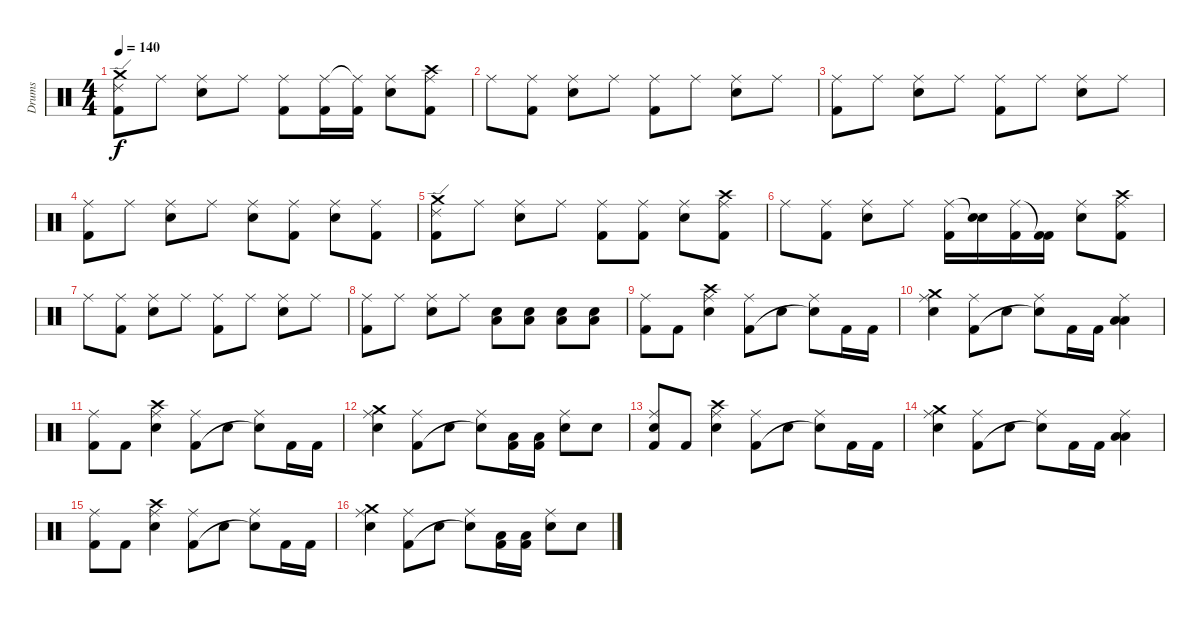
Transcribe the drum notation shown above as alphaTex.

\track ("Drums" "Drums") {instrument percussion}
\staff {score}
\articulation defaults
\ts (4 4)
\tempo 140
\clef neutral
\ks c
("Ride (edge) 2" "Kick (hit) 2" "Crash medium (hit)").8{dy f} "Ride (middle)".8 ("Ride (middle)" "Electric Snare (hit)").8 "Ride (middle)".8 ("Ride (middle)" "Kick (hit) 2").8 ("Ride (middle)" "Kick (hit) 2").16 ("Ride (middle)"{t} "Kick (hit) 2").16 ("Ride (middle)" "Electric Snare (hit)").8 ("Ride (middle)" "Kick (hit) 2" "Crash high (hit)").8 |
"Ride (middle)".8 ("Ride (middle)" "Kick (hit) 2").8 ("Ride (middle)" "Electric Snare (hit)").8 "Ride (middle)".8 ("Ride (middle)" "Kick (hit) 2").8 "Ride (middle)".8 ("Ride (middle)" "Electric Snare (hit)").8 "Ride (middle)".8 |
("Ride (middle)" "Kick (hit) 2").8 "Ride (middle)".8 ("Ride (middle)" "Electric Snare (hit)").8 "Ride (middle)".8 ("Ride (middle)" "Kick (hit) 2").8 "Ride (middle)".8 ("Ride (middle)" "Electric Snare (hit)").8 "Ride (middle)".8 |
("Ride (middle)" "Kick (hit) 2").8 "Ride (middle)".8 ("Ride (middle)" "Electric Snare (hit)").8 "Ride (middle)".8 ("Ride (middle)" "Electric Snare (hit)").8 ("Ride (middle)" "Kick (hit) 2").8 ("Ride (middle)" "Electric Snare (hit)").8 ("Ride (middle)" "Kick (hit) 2").8 |
("Ride (edge) 2" "Kick (hit) 2" "Crash medium (hit)").8 "Ride (middle)".8 ("Ride (middle)" "Electric Snare (hit)").8 "Ride (middle)".8 ("Ride (middle)" "Kick (hit) 2").8 ("Ride (middle)" "Kick (hit) 2").8 ("Ride (middle)" "Electric Snare (hit)").8 ("Ride (middle)" "Kick (hit) 2" "Crash high (hit)").8 |
"Ride (middle)".8 ("Ride (middle)" "Kick (hit) 2").8 ("Ride (middle)" "Electric Snare (hit)").8 "Ride (middle)".8 ("Ride (middle)" "Kick (hit) 2").16 ("Electric Snare (hit)"{t} "Electric Snare (hit)").16 ("Ride (middle)" "Kick (hit) 2").16 ("Kick (hit) 2"{t} "Kick (hit) 2").16 ("Ride (middle)" "Electric Snare (hit)").8 ("Ride (middle)" "Kick (hit) 2" "Crash high (hit)").8 |
"Ride (middle)".8 ("Ride (middle)" "Kick (hit) 2").8 ("Ride (middle)" "Electric Snare (hit)").8 "Ride (middle)".8 ("Ride (middle)" "Kick (hit) 2").8 "Ride (middle)".8 ("Ride (middle)" "Electric Snare (hit)").8 "Ride (middle)".8 |
("Ride (middle)" "Kick (hit) 2").8 "Ride (middle)".8 ("Ride (middle)" "Electric Snare (hit)").8 "Ride (middle)".8 ("Low Floor Tom (hit)" "Electric Snare (hit)").8 ("Low Floor Tom (hit)" "Electric Snare (hit)").8 ("Low Floor Tom (hit)" "Electric Snare (hit)").8 ("Low Floor Tom (hit)" "Electric Snare (hit)").8 |
("Ride (middle)" "Kick (hit) 2").8 "Kick (hit) 2".8 ("Ride (middle)" "Electric Snare (hit)" "Crash high (hit)").4 ("Ride (middle)" "Kick (hit) 2").8 "Electric Snare (hit)".8 ("Ride (middle)" "Electric Snare (hit)"{t}).8 "Kick (hit) 2".16 "Kick (hit) 2".16 |
("Ride (middle)" "Electric Snare (hit)" "Crash medium (hit)").4 ("Ride (middle)" "Kick (hit) 2").8 "Electric Snare (hit)".8 ("Ride (middle)" "Electric Snare (hit)"{t}).8 "Kick (hit) 2".16 "Kick (hit) 2".16 ("Ride (middle)" "Low Tom (hit)" "Low Tom (hit)").4 |
("Ride (middle)" "Kick (hit) 2").8 "Kick (hit) 2".8 ("Ride (middle)" "Electric Snare (hit)" "Crash high (hit)").4 ("Ride (middle)" "Kick (hit) 2").8 "Electric Snare (hit)".8 ("Ride (middle)" "Electric Snare (hit)"{t}).8 "Kick (hit) 2".16 "Kick (hit) 2".16 |
("Ride (middle)" "Electric Snare (hit)" "Crash medium (hit)").4 ("Ride (middle)" "Kick (hit) 2").8 "Electric Snare (hit)".8 ("Ride (middle)" "Electric Snare (hit)"{t}).8 ("Low Floor Tom (hit)" "Kick (hit) 2").16 ("Low Floor Tom (hit)" "Kick (hit) 2").16 ("Ride (middle)" "Electric Snare (hit)").8 "Electric Snare (hit)".8 |
("Ride (middle)" "Kick (hit) 2" "Electric Snare (hit)").8 "Kick (hit) 2".8 ("Ride (middle)" "Electric Snare (hit)" "Crash high (hit)").4 ("Ride (middle)" "Kick (hit) 2").8 "Electric Snare (hit)".8 ("Ride (middle)" "Electric Snare (hit)"{t}).8 "Kick (hit) 2".16 "Kick (hit) 2".16 |
("Ride (middle)" "Electric Snare (hit)" "Crash medium (hit)").4 ("Ride (middle)" "Kick (hit) 2").8 "Electric Snare (hit)".8 ("Ride (middle)" "Electric Snare (hit)"{t}).8 "Kick (hit) 2".16 "Kick (hit) 2".16 ("Ride (middle)" "Low Tom (hit)" "Low Tom (hit)").4 |
("Ride (middle)" "Kick (hit) 2").8 "Kick (hit) 2".8 ("Ride (middle)" "Electric Snare (hit)" "Crash high (hit)").4 ("Ride (middle)" "Kick (hit) 2").8 "Electric Snare (hit)".8 ("Ride (middle)" "Electric Snare (hit)"{t}).8 "Kick (hit) 2".16 "Kick (hit) 2".16 |
("Ride (middle)" "Electric Snare (hit)" "Crash medium (hit)").4 ("Ride (middle)" "Kick (hit) 2").8 "Electric Snare (hit)".8 ("Ride (middle)" "Electric Snare (hit)"{t}).8 ("Low Floor Tom (hit)" "Kick (hit) 2").16 ("Low Floor Tom (hit)" "Kick (hit) 2").16 ("Ride (middle)" "Electric Snare (hit)").8 "Electric Snare (hit)".8
